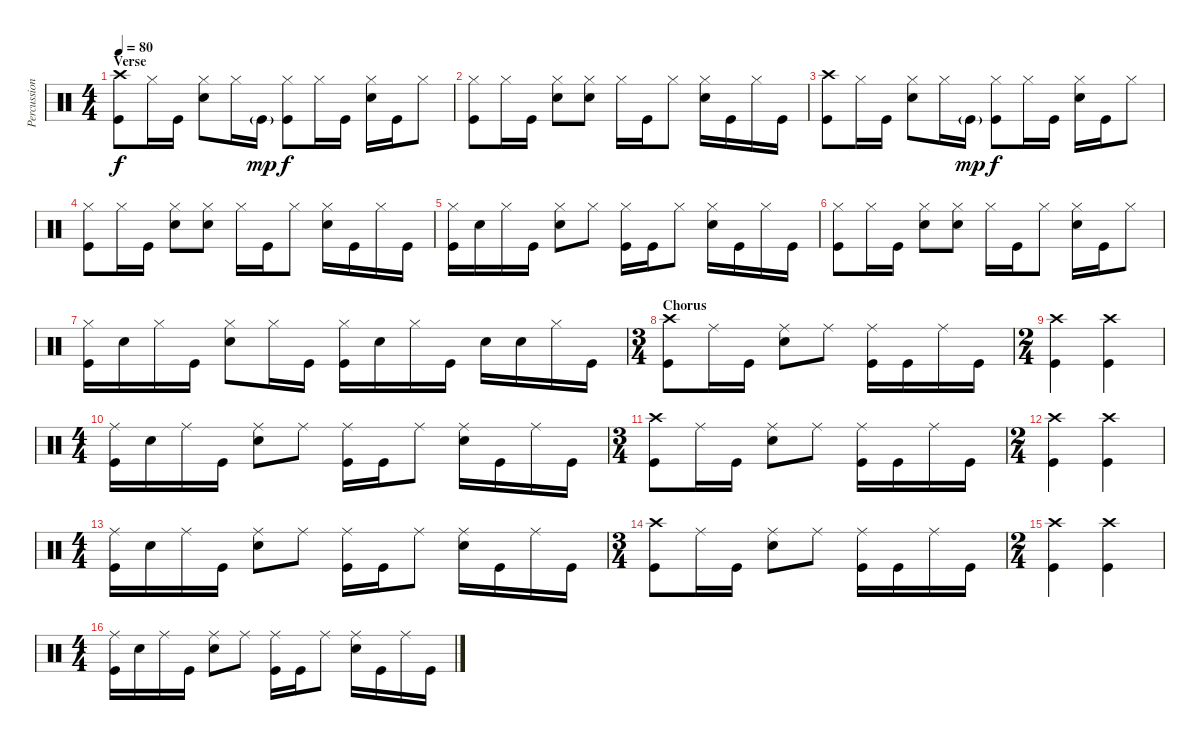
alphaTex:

\track ("Percussion" "Percussion") {instrument percussion}
\staff {score}
\articulation defaults
\ts (4 4)
\section ("" "Verse")
\tempo 80
\clef neutral
\ks c
("Crash high (hit)" "Kick (hit)").8{dy f} "Hi-Hat (closed)".16 "Kick (hit)".16 ("Hi-Hat (closed)" "Snare (hit) 2").8 "Hi-Hat (closed)".16 "Kick (hit)"{g}.16{dy mp} ("Hi-Hat (closed)" "Kick (hit)").8{dy f} "Hi-Hat (closed)".16 "Kick (hit)".16 ("Hi-Hat (closed)" "Snare (hit) 2").16 "Kick (hit)".16 "Hi-Hat (closed)".8 |
("Hi-Hat (closed)" "Kick (hit)").8 "Hi-Hat (closed)".16 "Kick (hit)".16 ("Hi-Hat (closed)" "Snare (hit) 2").8 ("Hi-Hat (closed)" "Snare (hit) 2").8 "Hi-Hat (closed)".16 "Kick (hit)".16 "Hi-Hat (closed)".8 ("Hi-Hat (closed)" "Snare (hit) 2").16 "Kick (hit)".16 "Hi-Hat (closed)".16 "Kick (hit)".16 |
("Crash high (hit)" "Kick (hit)").8 "Hi-Hat (closed)".16 "Kick (hit)".16 ("Hi-Hat (closed)" "Snare (hit) 2").8 "Hi-Hat (closed)".16 "Kick (hit)"{g}.16{dy mp} ("Hi-Hat (closed)" "Kick (hit)").8{dy f} "Hi-Hat (closed)".16 "Kick (hit)".16 ("Hi-Hat (closed)" "Snare (hit) 2").16 "Kick (hit)".16 "Hi-Hat (closed)".8 |
("Hi-Hat (closed)" "Kick (hit)").8 "Hi-Hat (closed)".16 "Kick (hit)".16 ("Hi-Hat (closed)" "Snare (hit) 2").8 ("Hi-Hat (closed)" "Snare (hit) 2").8 "Hi-Hat (closed)".16 "Kick (hit)".16 "Hi-Hat (closed)".8 ("Hi-Hat (closed)" "Snare (hit) 2").16 "Kick (hit)".16 "Hi-Hat (closed)".16 "Kick (hit)".16 |
("Hi-Hat (closed)" "Kick (hit)").16 "Snare (hit) 2".16 "Hi-Hat (closed)".16 "Kick (hit)".16 ("Hi-Hat (closed)" "Snare (hit) 2").8 "Hi-Hat (closed)".8 ("Hi-Hat (closed)" "Kick (hit)").16 "Kick (hit)".16 "Hi-Hat (closed)".8 ("Hi-Hat (closed)" "Snare (hit) 2").16 "Kick (hit)".16 "Hi-Hat (closed)".16 "Kick (hit)".16 |
("Hi-Hat (closed)" "Kick (hit)").8 "Hi-Hat (closed)".16 "Kick (hit)".16 ("Hi-Hat (closed)" "Snare (hit) 2").8 ("Hi-Hat (closed)" "Snare (hit) 2").8 "Hi-Hat (closed)".16 "Kick (hit)".16 "Hi-Hat (closed)".8 ("Hi-Hat (closed)" "Snare (hit) 2").16 "Kick (hit)".16 "Hi-Hat (closed)".8 |
("Hi-Hat (closed)" "Kick (hit)").16 "Snare (hit) 2".16 "Hi-Hat (closed)".16 "Kick (hit)".16 ("Hi-Hat (closed)" "Snare (hit) 2").8 "Hi-Hat (closed)".16 "Kick (hit)".16 ("Hi-Hat (closed)" "Kick (hit)").16 "Snare (hit) 2".16 "Hi-Hat (closed)".16 "Kick (hit)".16 "Snare (hit) 2".16 "Snare (hit) 2".16 "Hi-Hat (closed)".16 "Kick (hit)".16 |
\ts (3 4)
\section ("" "Chorus")
("Crash high (hit)" "Kick (hit)").8 "Ride (middle)".16 "Kick (hit)".16 ("Ride (middle)" "Snare (hit) 2").8 "Ride (middle)".8 ("Ride (middle)" "Kick (hit)").16 "Kick (hit)".16 "Ride (middle)".16 "Kick (hit)".16 |
\ts (2 4)
("Crash high (hit)" "Kick (hit)").4 ("Crash high (hit)" "Kick (hit)").4 |
\ts (4 4)
("Ride (middle)" "Kick (hit)").16 "Snare (hit) 2".16 "Ride (middle)".16 "Kick (hit)".16 ("Ride (middle)" "Snare (hit) 2").8 "Ride (middle)".8 ("Ride (middle)" "Kick (hit)").16 "Kick (hit)".16 "Ride (middle)".8 ("Ride (middle)" "Snare (hit) 2").16 "Kick (hit)".16 "Ride (middle)".16 "Kick (hit)".16 |
\ts (3 4)
("Crash high (hit)" "Kick (hit)").8 "Ride (middle)".16 "Kick (hit)".16 ("Ride (middle)" "Snare (hit) 2").8 "Ride (middle)".8 ("Ride (middle)" "Kick (hit)").16 "Kick (hit)".16 "Ride (middle)".16 "Kick (hit)".16 |
\ts (2 4)
("Crash high (hit)" "Kick (hit)").4 ("Crash high (hit)" "Kick (hit)").4 |
\ts (4 4)
("Ride (middle)" "Kick (hit)").16 "Snare (hit) 2".16 "Ride (middle)".16 "Kick (hit)".16 ("Ride (middle)" "Snare (hit) 2").8 "Ride (middle)".8 ("Ride (middle)" "Kick (hit)").16 "Kick (hit)".16 "Ride (middle)".8 ("Ride (middle)" "Snare (hit) 2").16 "Kick (hit)".16 "Ride (middle)".16 "Kick (hit)".16 |
\ts (3 4)
("Crash high (hit)" "Kick (hit)").8 "Ride (middle)".16 "Kick (hit)".16 ("Ride (middle)" "Snare (hit) 2").8 "Ride (middle)".8 ("Ride (middle)" "Kick (hit)").16 "Kick (hit)".16 "Ride (middle)".16 "Kick (hit)".16 |
\ts (2 4)
("Crash high (hit)" "Kick (hit)").4 ("Crash high (hit)" "Kick (hit)").4 |
\ts (4 4)
("Ride (middle)" "Kick (hit)").16 "Snare (hit) 2".16 "Ride (middle)".16 "Kick (hit)".16 ("Ride (middle)" "Snare (hit) 2").8 "Ride (middle)".8 ("Ride (middle)" "Kick (hit)").16 "Kick (hit)".16 "Ride (middle)".8 ("Ride (middle)" "Snare (hit) 2").16 "Kick (hit)".16 "Ride (middle)".16 "Kick (hit)".16
